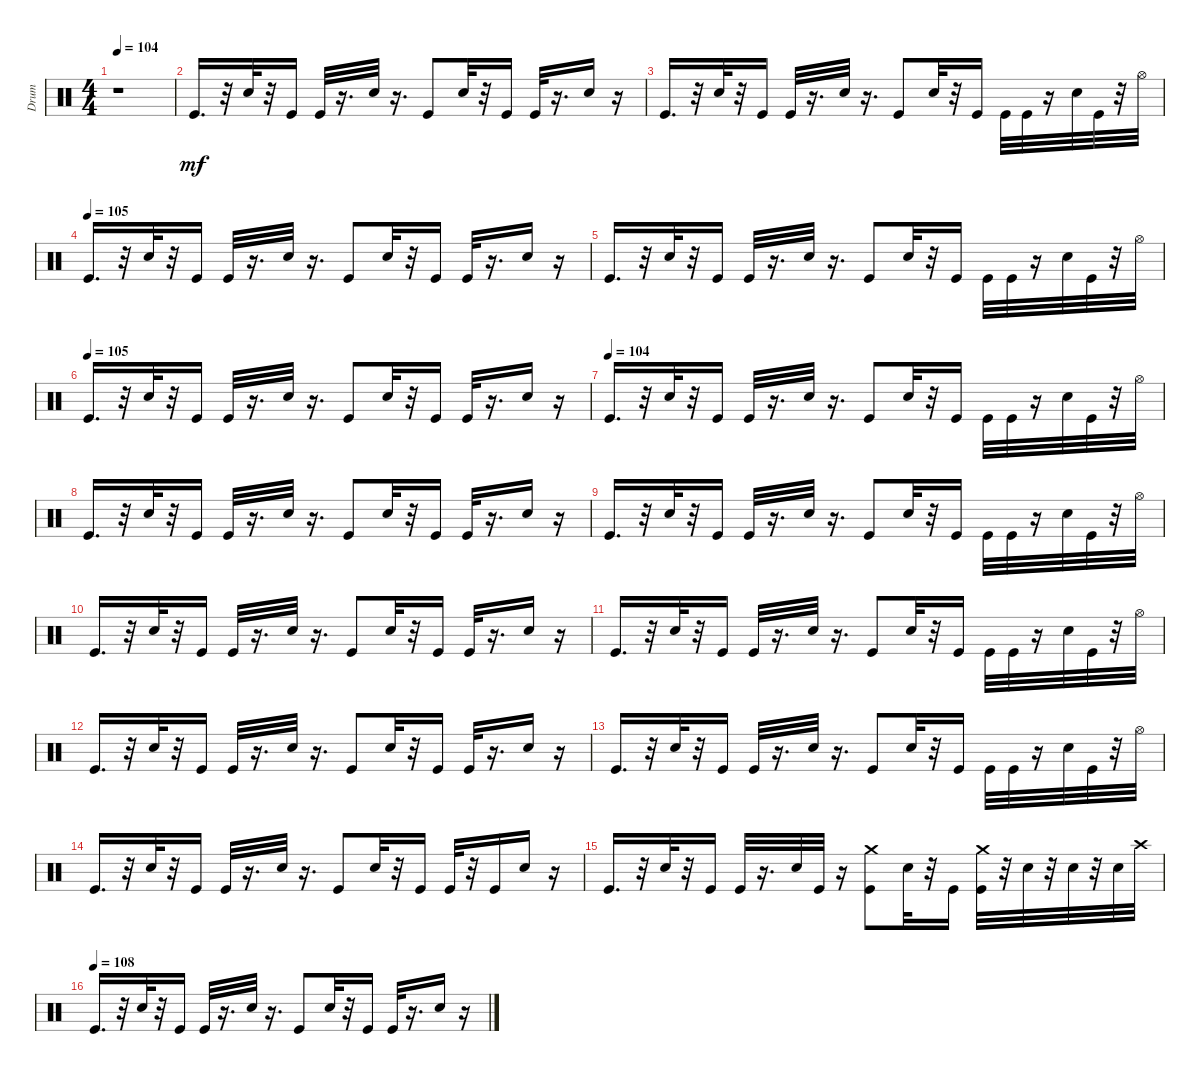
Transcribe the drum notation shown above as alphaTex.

\track ("Drum" "Drum") {instrument percussion}
\staff {score}
\articulation defaults
\ts (4 4)
\tempo 104
\clef neutral
\ks c
r.1{dy mf} |
"Kick (hit)".16{d} r.32 "Snare (hit) 2".32 r.32 "Kick (hit)".16 "Kick (hit)".32 r.16{d} "Snare (hit) 2".32 r.16{d} "Kick (hit)".8 "Snare (hit) 2".32 r.32 "Kick (hit)".16 "Kick (hit)".32 r.16{d} "Snare (hit) 2".16 r.16 |
"Kick (hit)".16{d} r.32 "Snare (hit) 2".32 r.32 "Kick (hit)".16 "Kick (hit)".32 r.16{d} "Snare (hit) 2".32 r.16{d} "Kick (hit)".8 "Snare (hit) 2".32 r.32 "Kick (hit)".16 "Kick (hit)".32 "Kick (hit)".32 r.16 "Snare (hit) 2".32 "Kick (hit)".32 r.32 "Hi-Hat (open)".32 |
\tempo (105)
"Kick (hit)".16{d} r.32 "Snare (hit) 2".32 r.32 "Kick (hit)".16 "Kick (hit)".32 r.16{d} "Snare (hit) 2".32 r.16{d} "Kick (hit)".8 "Snare (hit) 2".32 r.32 "Kick (hit)".16 "Kick (hit)".32 r.16{d} "Snare (hit) 2".16 r.16 |
"Kick (hit)".16{d} r.32 "Snare (hit) 2".32 r.32 "Kick (hit)".16 "Kick (hit)".32 r.16{d} "Snare (hit) 2".32 r.16{d} "Kick (hit)".8 "Snare (hit) 2".32 r.32 "Kick (hit)".16 "Kick (hit)".32 "Kick (hit)".32 r.16 "Snare (hit) 2".32 "Kick (hit)".32 r.32 "Hi-Hat (open)".32 |
\tempo (105)
"Kick (hit)".16{d} r.32 "Snare (hit) 2".32 r.32 "Kick (hit)".16 "Kick (hit)".32 r.16{d} "Snare (hit) 2".32 r.16{d} "Kick (hit)".8 "Snare (hit) 2".32 r.32 "Kick (hit)".16 "Kick (hit)".32 r.16{d} "Snare (hit) 2".16 r.16 |
\tempo (104)
"Kick (hit)".16{d} r.32 "Snare (hit) 2".32 r.32 "Kick (hit)".16 "Kick (hit)".32 r.16{d} "Snare (hit) 2".32 r.16{d} "Kick (hit)".8 "Snare (hit) 2".32 r.32 "Kick (hit)".16 "Kick (hit)".32 "Kick (hit)".32 r.16 "Snare (hit) 2".32 "Kick (hit)".32 r.32 "Hi-Hat (open)".32 |
"Kick (hit)".16{d} r.32 "Snare (hit) 2".32 r.32 "Kick (hit)".16 "Kick (hit)".32 r.16{d} "Snare (hit) 2".32 r.16{d} "Kick (hit)".8 "Snare (hit) 2".32 r.32 "Kick (hit)".16 "Kick (hit)".32 r.16{d} "Snare (hit) 2".16 r.16 |
"Kick (hit)".16{d} r.32 "Snare (hit) 2".32 r.32 "Kick (hit)".16 "Kick (hit)".32 r.16{d} "Snare (hit) 2".32 r.16{d} "Kick (hit)".8 "Snare (hit) 2".32 r.32 "Kick (hit)".16 "Kick (hit)".32 "Kick (hit)".32 r.16 "Snare (hit) 2".32 "Kick (hit)".32 r.32 "Hi-Hat (open)".32 |
"Kick (hit)".16{d} r.32 "Snare (hit) 2".32 r.32 "Kick (hit)".16 "Kick (hit)".32 r.16{d} "Snare (hit) 2".32 r.16{d} "Kick (hit)".8 "Snare (hit) 2".32 r.32 "Kick (hit)".16 "Kick (hit)".32 r.16{d} "Snare (hit) 2".16 r.16 |
"Kick (hit)".16{d} r.32 "Snare (hit) 2".32 r.32 "Kick (hit)".16 "Kick (hit)".32 r.16{d} "Snare (hit) 2".32 r.16{d} "Kick (hit)".8 "Snare (hit) 2".32 r.32 "Kick (hit)".16 "Kick (hit)".32 "Kick (hit)".32 r.16 "Snare (hit) 2".32 "Kick (hit)".32 r.32 "Hi-Hat (open)".32 |
"Kick (hit)".16{d} r.32 "Snare (hit) 2".32 r.32 "Kick (hit)".16 "Kick (hit)".32 r.16{d} "Snare (hit) 2".32 r.16{d} "Kick (hit)".8 "Snare (hit) 2".32 r.32 "Kick (hit)".16 "Kick (hit)".32 r.16{d} "Snare (hit) 2".16 r.16 |
"Kick (hit)".16{d} r.32 "Snare (hit) 2".32 r.32 "Kick (hit)".16 "Kick (hit)".32 r.16{d} "Snare (hit) 2".32 r.16{d} "Kick (hit)".8 "Snare (hit) 2".32 r.32 "Kick (hit)".16 "Kick (hit)".32 "Kick (hit)".32 r.16 "Snare (hit) 2".32 "Kick (hit)".32 r.32 "Hi-Hat (open)".32 |
"Kick (hit)".16{d} r.32 "Snare (hit) 2".32 r.32 "Kick (hit)".16 "Kick (hit)".32 r.16{d} "Snare (hit) 2".32 r.16{d} "Kick (hit)".8 "Snare (hit) 2".32 r.32 "Kick (hit)".16 "Kick (hit)".32 r.32 "Kick (hit)".16 "Snare (hit) 2".16 r.16 |
"Kick (hit)".16{d} r.32 "Snare (hit) 2".32 r.32 "Kick (hit)".16 "Kick (hit)".32 r.16{d} "Snare (hit) 2".32 "Kick (hit)".32 r.16 ("Crash medium (hit)" "Kick (hit)").8 "Snare (hit) 2".32 r.32 "Kick (hit)".16 ("Crash medium (hit)" "Kick (hit)").32 r.32 "Snare (hit) 2".32 r.32 "Snare (hit) 2".32 r.32 "Snare (hit) 2".32 "Crash high (hit)".32 |
\tempo (108)
"Kick (hit)".16{d} r.32 "Snare (hit) 2".32 r.32 "Kick (hit)".16 "Kick (hit)".32 r.16{d} "Snare (hit) 2".32 r.16{d} "Kick (hit)".8 "Snare (hit) 2".32 r.32 "Kick (hit)".16 "Kick (hit)".32 r.16{d} "Snare (hit) 2".16 r.16
